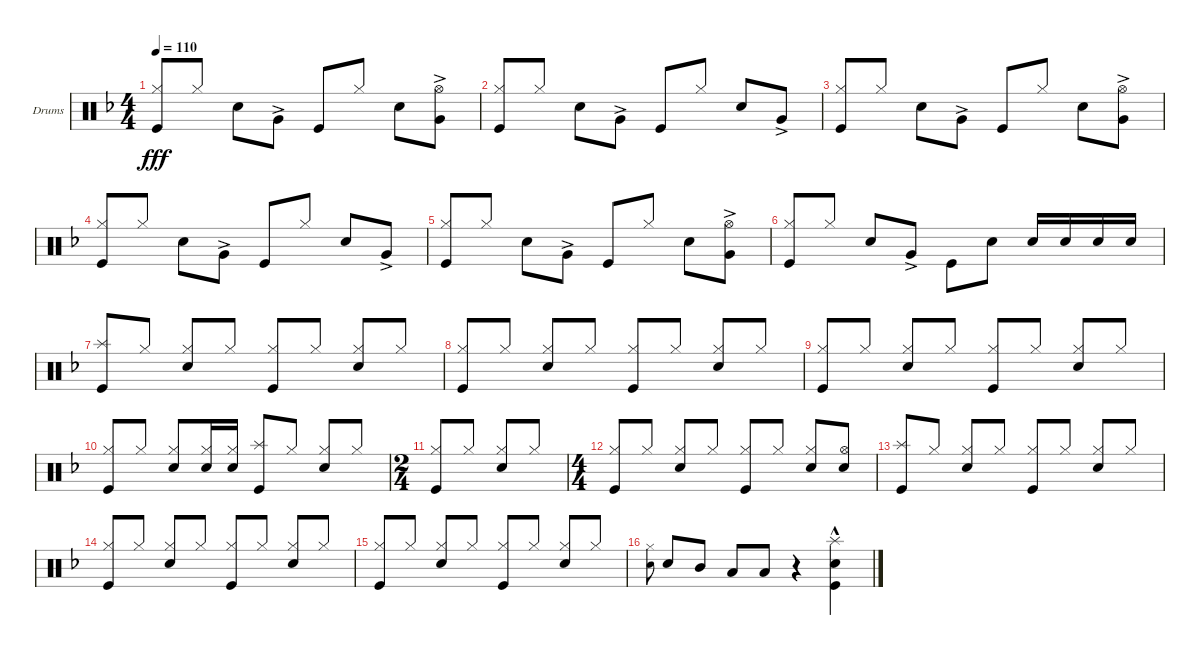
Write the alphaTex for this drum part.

\defaultSystemsLayout 4
\bracketExtendMode groupsimilarinstruments
\firstSystemTrackNameOrientation horizontal
\otherSystemsTrackNameOrientation horizontal
\track ("Drumkit" "Drums") {instrument percussion}
\staff {score}
\articulation defaults
\ts (4 4)
\tempo 110
\clef neutral
\ks f
("Kick (hit)" "Hi-Hat (closed)").8{dy fff beam invert} "Hi-Hat (closed)".8 "Snare (hit) 2".8 "Very Low Tom (hit)"{ac}.8 "Kick (hit)".8{beam invert} "Hi-Hat (closed)".8 "Snare (hit) 2".8 ("Very Low Tom (hit)"{ac} "Hi-Hat (open)").8 |
("Kick (hit)" "Hi-Hat (closed)").8{beam invert} "Hi-Hat (closed)".8 "Snare (hit) 2".8 "Very Low Tom (hit)"{ac}.8 "Kick (hit)".8{beam invert} "Hi-Hat (closed)".8 "Snare (hit) 2".8 "Very Low Tom (hit)"{ac}.8 |
("Kick (hit)" "Hi-Hat (closed)").8{beam invert} "Hi-Hat (closed)".8 "Snare (hit) 2".8 "Very Low Tom (hit)"{ac}.8 "Kick (hit)".8{beam invert} "Hi-Hat (closed)".8 "Snare (hit) 2".8 ("Very Low Tom (hit)"{ac} "Hi-Hat (open)").8 |
("Kick (hit)" "Hi-Hat (closed)").8{beam invert} "Hi-Hat (closed)".8 "Snare (hit) 2".8 "Very Low Tom (hit)"{ac}.8 "Kick (hit)".8{beam invert} "Hi-Hat (closed)".8 "Snare (hit) 2".8 "Very Low Tom (hit)"{ac}.8 |
("Kick (hit)" "Hi-Hat (closed)").8{beam invert} "Hi-Hat (closed)".8 "Snare (hit) 2".8 "Very Low Tom (hit)"{ac}.8 "Kick (hit)".8{beam invert} "Hi-Hat (closed)".8 "Snare (hit) 2".8 ("Very Low Tom (hit)"{ac} "Hi-Hat (open)").8 |
("Kick (hit)" "Hi-Hat (closed)").8{beam invert} "Hi-Hat (closed)".8 "Snare (hit) 2".8 "Very Low Tom (hit)"{ac}.8 "Kick (hit)".8 "Snare (hit) 2".8 "Snare (hit) 2".16{beam invert} "Snare (hit) 2".16 "Snare (hit) 2".16 "Snare (hit) 2".16 |
("Kick (hit)" "Splash (hit)").8 "Hi-Hat (closed)".8 ("Hi-Hat (closed)" "Snare (hit) 2").8{beam invert} "Hi-Hat (closed)".8 ("Hi-Hat (closed)" "Kick (hit)").8{beam invert} "Hi-Hat (closed)".8 ("Hi-Hat (closed)" "Snare (hit) 2").8{beam invert} "Hi-Hat (closed)".8 |
("Hi-Hat (closed)" "Kick (hit)").8{beam invert} "Hi-Hat (closed)".8 ("Hi-Hat (closed)" "Snare (hit) 2").8{beam invert} "Hi-Hat (closed)".8 ("Hi-Hat (closed)" "Kick (hit)").8{beam invert} "Hi-Hat (closed)".8 ("Hi-Hat (closed)" "Snare (hit) 2").8{beam invert} "Hi-Hat (closed)".8 |
("Hi-Hat (closed)" "Kick (hit)").8{beam invert} "Hi-Hat (closed)".8 ("Hi-Hat (closed)" "Snare (hit) 2").8{beam invert} "Hi-Hat (closed)".8 ("Hi-Hat (closed)" "Kick (hit)").8{beam invert} "Hi-Hat (closed)".8 ("Hi-Hat (closed)" "Snare (hit) 2").8{beam invert} "Hi-Hat (closed)".8 |
("Hi-Hat (closed)" "Kick (hit)").8{beam invert} "Hi-Hat (closed)".8 ("Hi-Hat (closed)" "Snare (hit) 2").8{beam invert} ("Hi-Hat (closed)" "Snare (hit) 2").16 ("Hi-Hat (closed)" "Snare (hit) 2").16 ("Kick (hit)" "Splash (hit)").8 "Hi-Hat (closed)".8 ("Hi-Hat (closed)" "Snare (hit) 2").8{beam invert} "Hi-Hat (closed)".8 |
\ts (2 4)
("Hi-Hat (closed)" "Kick (hit)").8{beam invert} "Hi-Hat (closed)".8 ("Hi-Hat (closed)" "Snare (hit) 2").8{beam invert} "Hi-Hat (closed)".8 |
\ts (4 4)
("Hi-Hat (closed)" "Kick (hit)").8{beam invert} "Hi-Hat (closed)".8 ("Hi-Hat (closed)" "Snare (hit) 2").8{beam invert} "Hi-Hat (closed)".8 ("Hi-Hat (closed)" "Kick (hit)").8{beam invert} "Hi-Hat (closed)".8 ("Hi-Hat (closed)" "Snare (hit) 2").8{beam invert} ("Hi-Hat (open)" "Snare (hit) 2").8 |
("Kick (hit)" "Splash (hit)").8 "Hi-Hat (closed)".8 ("Hi-Hat (closed)" "Snare (hit) 2").8{beam invert} "Hi-Hat (closed)".8 ("Hi-Hat (closed)" "Kick (hit)").8{beam invert} "Hi-Hat (closed)".8 ("Hi-Hat (closed)" "Snare (hit) 2").8{beam invert} "Hi-Hat (closed)".8 |
("Hi-Hat (closed)" "Kick (hit)").8{beam invert} "Hi-Hat (closed)".8 ("Hi-Hat (closed)" "Snare (hit) 2").8{beam invert} "Hi-Hat (closed)".8 ("Hi-Hat (closed)" "Kick (hit)").8{beam invert} "Hi-Hat (closed)".8 ("Hi-Hat (closed)" "Snare (hit) 2").8{beam invert} "Hi-Hat (closed)".8 |
("Hi-Hat (closed)" "Kick (hit)").8{beam invert} "Hi-Hat (closed)".8 ("Hi-Hat (closed)" "Snare (hit) 2").8{beam invert} "Hi-Hat (closed)".8 ("Hi-Hat (closed)" "Kick (hit)").8{beam invert} "Hi-Hat (closed)".8 ("Hi-Hat (closed)" "Snare (hit) 2").8{beam invert} "Hi-Hat (closed)".8 |
("Hi-Hat (closed)" "Snare (hit) 2").8{gr onbeat beam invert} "Snare (hit) 2".8 "Mid Tom (hit)".8{beam invert} "Low Tom (hit)".8 "Low Tom (hit)".8 r.4 ("Snare (hit) 2" "Splash (hit)"{hac} "Kick (hit)").4
